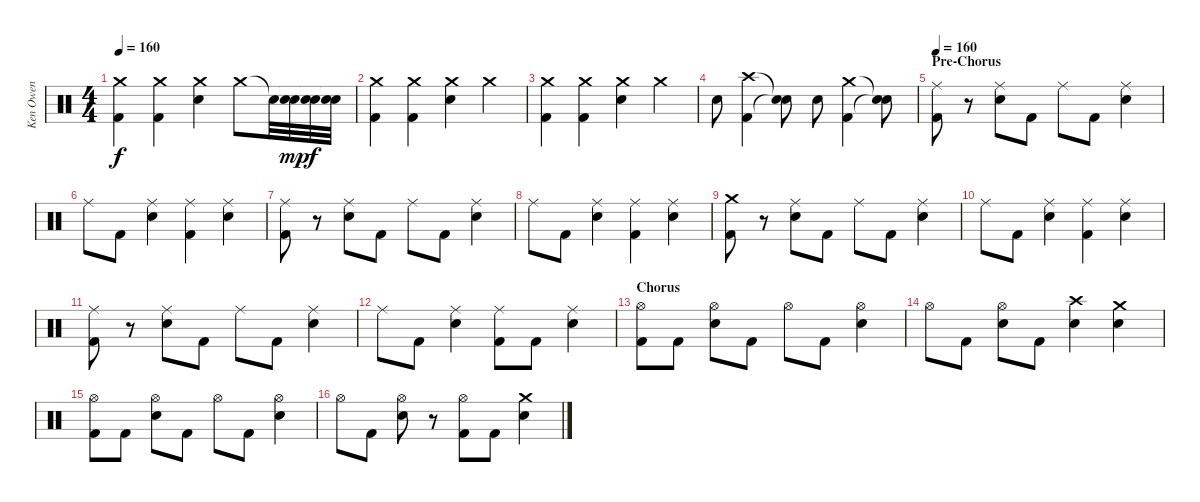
\track ("Ken Owen" "Ken Owen") {instrument percussion}
\staff {score}
\articulation defaults
\ts (4 4)
\tempo 160
\clef neutral
\ks c
("Crash medium (hit)" "Kick (hit) 2").4{dy f} ("Crash medium (hit)" "Kick (hit) 2").4 ("Crash medium (hit)" "Electric Snare (hit)").4 "Crash medium (hit)".8 "Snare (hit)"{t}.32 ("Snare (hit)"{t} "Electric Snare (hit)").32{dy mp} ("Snare (hit)"{t} "Electric Snare (hit)").32{dy f} ("Snare (hit)"{t} "Electric Snare (hit)").32 |
("Crash medium (hit)" "Kick (hit) 2").4 ("Crash medium (hit)" "Kick (hit) 2").4 ("Crash medium (hit)" "Electric Snare (hit)").4 "Crash medium (hit)".4 |
("Crash medium (hit)" "Kick (hit) 2").4 ("Crash medium (hit)" "Kick (hit) 2").4 ("Crash medium (hit)" "Electric Snare (hit)").4 "Crash medium (hit)".4 |
"Electric Snare (hit)".8 ("Crash high (hit)" "Kick (hit) 2").4 ("Snare (hit)"{t} "Snare (hit)"{t}).8 "Electric Snare (hit)".8 ("Crash medium (hit)" "Kick (hit) 2").4 ("Snare (hit)"{t} "Snare (hit)"{t}).8 |
\section ("" "Pre-Chorus")
\tempo 160
("Ride (middle)" "Kick (hit) 2").8 r.8 ("Ride (middle)" "Electric Snare (hit)").8 "Kick (hit) 2".8 "Ride (middle)".8 "Kick (hit) 2".8 ("Ride (middle)" "Electric Snare (hit)").4 |
"Ride (middle)".8 "Kick (hit) 2".8 ("Ride (middle)" "Electric Snare (hit)").4 ("Ride (middle)" "Kick (hit) 2").4 ("Ride (middle)" "Electric Snare (hit)").4 |
("Ride (middle)" "Kick (hit) 2").8 r.8 ("Ride (middle)" "Electric Snare (hit)").8 "Kick (hit) 2".8 "Ride (middle)".8 "Kick (hit) 2".8 ("Ride (middle)" "Electric Snare (hit)").4 |
"Ride (middle)".8 "Kick (hit) 2".8 ("Ride (middle)" "Electric Snare (hit)").4 ("Ride (middle)" "Kick (hit) 2").4 ("Ride (middle)" "Electric Snare (hit)").4 |
("Crash medium (hit)" "Kick (hit) 2").8 r.8 ("Ride (middle)" "Electric Snare (hit)").8 "Kick (hit) 2".8 "Ride (middle)".8 "Kick (hit) 2".8 ("Ride (middle)" "Electric Snare (hit)").4 |
"Ride (middle)".8 "Kick (hit) 2".8 ("Ride (middle)" "Electric Snare (hit)").4 ("Ride (middle)" "Kick (hit) 2").4 ("Ride (middle)" "Electric Snare (hit)").4 |
("Ride (middle)" "Kick (hit) 2").8 r.8 ("Ride (middle)" "Electric Snare (hit)").8 "Kick (hit) 2".8 "Ride (middle)".8 "Kick (hit) 2".8 ("Ride (middle)" "Electric Snare (hit)").4 |
"Ride (middle)".8 "Kick (hit) 2".8 ("Ride (middle)" "Electric Snare (hit)").4 ("Ride (middle)" "Kick (hit) 2").8 "Kick (hit) 2".8 ("Ride (middle)" "Electric Snare (hit)").4 |
\section ("" "Chorus")
("Hi-Hat (open)" "Kick (hit) 2").8 "Kick (hit) 2".8 ("Hi-Hat (open)" "Electric Snare (hit)").8 "Kick (hit) 2".8 "Hi-Hat (open)".8 "Kick (hit) 2".8 ("Hi-Hat (open)" "Electric Snare (hit)").4 |
"Hi-Hat (open)".8 "Kick (hit) 2".8 ("Hi-Hat (open)" "Electric Snare (hit)").8 "Kick (hit) 2".8 ("Crash high (hit)" "Electric Snare (hit)").4 ("Crash medium (hit)" "Electric Snare (hit)").4 |
("Hi-Hat (open)" "Kick (hit) 2").8 "Kick (hit) 2".8 ("Hi-Hat (open)" "Electric Snare (hit)").8 "Kick (hit) 2".8 "Hi-Hat (open)".8 "Kick (hit) 2".8 ("Hi-Hat (open)" "Electric Snare (hit)").4 |
"Hi-Hat (open)".8 "Kick (hit) 2".8 ("Hi-Hat (open)" "Electric Snare (hit)").8 r.8 ("Hi-Hat (open)" "Kick (hit) 2").8 "Kick (hit) 2".8 ("Crash medium (hit)" "Electric Snare (hit)").4
